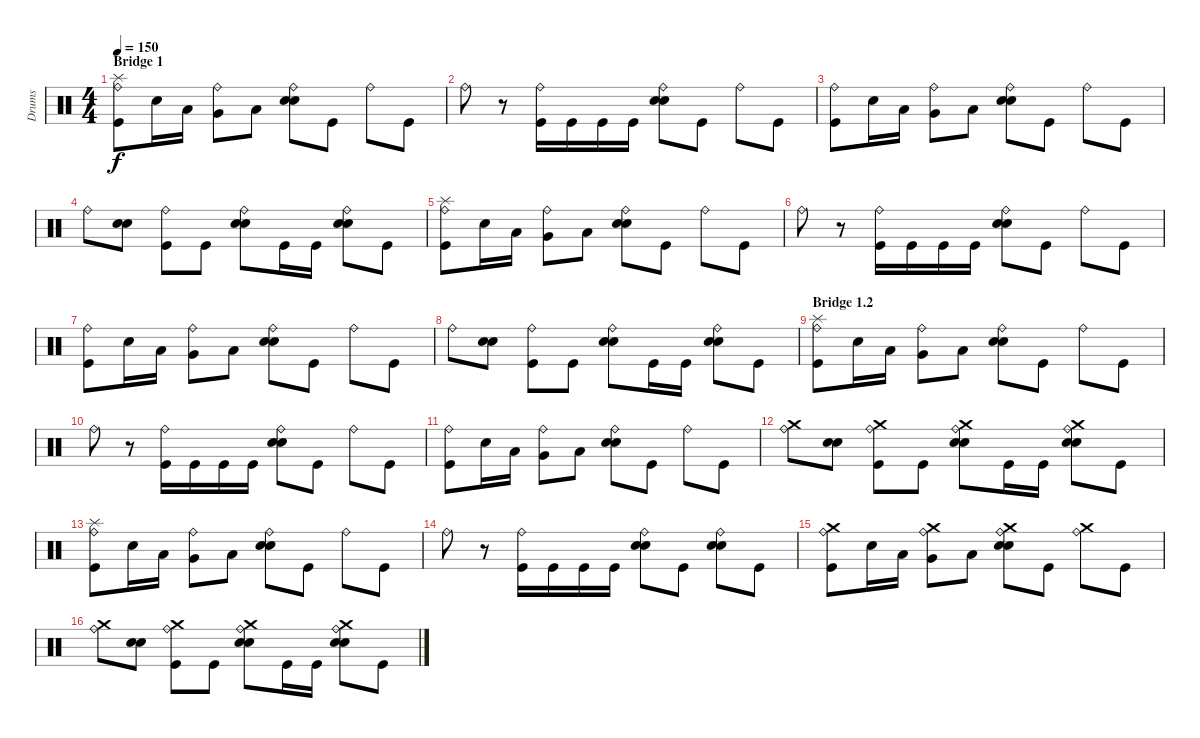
\track ("Drums" "Drums") {instrument percussion}
\staff {score}
\articulation defaults
\ts (4 4)
\section ("" "Bridge 1")
\tempo 150
\clef neutral
\ks c
("Kick (hit)" "Ride (bell)" "Splash (hit)").8{dy f} "Electric Snare (hit)".16 "Low Tom (hit)".16 ("Very Low Tom (hit)" "Ride (bell)").8 "Low Floor Tom (hit)".8 ("Electric Snare (hit)" "Electric Snare (hit)" "Ride (bell)").8 "Kick (hit)".8 "Ride (bell)".8 "Kick (hit)".8 |
"Ride (bell)".8 r.8 ("Kick (hit)" "Ride (bell)").16 "Kick (hit)".16 "Kick (hit)".16 "Kick (hit)".16 ("Electric Snare (hit)" "Electric Snare (hit)" "Ride (bell)").8 "Kick (hit)".8 "Ride (bell)".8 "Kick (hit)".8 |
("Kick (hit)" "Ride (bell)").8 "Electric Snare (hit)".16 "Low Tom (hit)".16 ("Very Low Tom (hit)" "Ride (bell)").8 "Low Floor Tom (hit)".8 ("Electric Snare (hit)" "Electric Snare (hit)" "Ride (bell)").8 "Kick (hit)".8 "Ride (bell)".8 "Kick (hit)".8 |
"Ride (bell)".8 ("Electric Snare (hit)" "Electric Snare (hit)").8 ("Kick (hit)" "Ride (bell)").8 "Kick (hit)".8 ("Electric Snare (hit)" "Electric Snare (hit)" "Ride (bell)").8 "Kick (hit)".16 "Kick (hit)".16 ("Electric Snare (hit)" "Electric Snare (hit)" "Ride (bell)").8 "Kick (hit)".8 |
("Kick (hit)" "Ride (bell)" "Splash (hit)").8 "Electric Snare (hit)".16 "Low Tom (hit)".16 ("Very Low Tom (hit)" "Ride (bell)").8 "Low Floor Tom (hit)".8 ("Electric Snare (hit)" "Electric Snare (hit)" "Ride (bell)").8 "Kick (hit)".8 "Ride (bell)".8 "Kick (hit)".8 |
"Ride (bell)".8 r.8 ("Kick (hit)" "Ride (bell)").16 "Kick (hit)".16 "Kick (hit)".16 "Kick (hit)".16 ("Electric Snare (hit)" "Electric Snare (hit)" "Ride (bell)").8 "Kick (hit)".8 "Ride (bell)".8 "Kick (hit)".8 |
("Kick (hit)" "Ride (bell)").8 "Electric Snare (hit)".16 "Low Tom (hit)".16 ("Very Low Tom (hit)" "Ride (bell)").8 "Low Floor Tom (hit)".8 ("Electric Snare (hit)" "Electric Snare (hit)" "Ride (bell)").8 "Kick (hit)".8 "Ride (bell)".8 "Kick (hit)".8 |
"Ride (bell)".8 ("Electric Snare (hit)" "Electric Snare (hit)").8 ("Kick (hit)" "Ride (bell)").8 "Kick (hit)".8 ("Electric Snare (hit)" "Electric Snare (hit)" "Ride (bell)").8 "Kick (hit)".16 "Kick (hit)".16 ("Electric Snare (hit)" "Electric Snare (hit)" "Ride (bell)").8 "Kick (hit)".8 |
\section ("" "Bridge 1.2")
("Kick (hit)" "Ride (bell)" "Splash (hit)").8 "Electric Snare (hit)".16 "Low Tom (hit)".16 ("Very Low Tom (hit)" "Ride (bell)").8 "Low Floor Tom (hit)".8 ("Electric Snare (hit)" "Electric Snare (hit)" "Ride (bell)").8 "Kick (hit)".8 "Ride (bell)".8 "Kick (hit)".8 |
"Ride (bell)".8 r.8 ("Kick (hit)" "Ride (bell)").16 "Kick (hit)".16 "Kick (hit)".16 "Kick (hit)".16 ("Electric Snare (hit)" "Electric Snare (hit)" "Ride (bell)").8 "Kick (hit)".8 "Ride (bell)".8 "Kick (hit)".8 |
("Kick (hit)" "Ride (bell)").8 "Electric Snare (hit)".16 "Low Tom (hit)".16 ("Very Low Tom (hit)" "Ride (bell)").8 "Low Floor Tom (hit)".8 ("Electric Snare (hit)" "Electric Snare (hit)" "Ride (bell)").8 "Kick (hit)".8 "Ride (bell)".8 "Kick (hit)".8 |
("Ride (bell)" "Crash medium (hit)").8 ("Electric Snare (hit)" "Electric Snare (hit)").8 ("Kick (hit)" "Ride (bell)" "Crash medium (hit)").8 "Kick (hit)".8 ("Electric Snare (hit)" "Electric Snare (hit)" "Ride (bell)" "Crash medium (hit)").8 "Kick (hit)".16 "Kick (hit)".16 ("Electric Snare (hit)" "Electric Snare (hit)" "Ride (bell)" "Crash medium (hit)").8 "Kick (hit)".8 |
("Kick (hit)" "Ride (bell)" "Splash (hit)").8 "Electric Snare (hit)".16 "Low Tom (hit)".16 ("Very Low Tom (hit)" "Ride (bell)").8 "Low Floor Tom (hit)".8 ("Electric Snare (hit)" "Electric Snare (hit)" "Ride (bell)").8 "Kick (hit)".8 "Ride (bell)".8 "Kick (hit)".8 |
"Ride (bell)".8 r.8 ("Kick (hit)" "Ride (bell)").16 "Kick (hit)".16 "Kick (hit)".16 "Kick (hit)".16 ("Electric Snare (hit)" "Electric Snare (hit)" "Ride (bell)").8 "Kick (hit)".8 ("Electric Snare (hit)" "Electric Snare (hit)" "Ride (bell)").8 "Kick (hit)".8 |
("Kick (hit)" "Ride (bell)" "Crash medium (hit)").8 "Electric Snare (hit)".16 "Low Tom (hit)".16 ("Very Low Tom (hit)" "Ride (bell)" "Crash medium (hit)").8 "Low Floor Tom (hit)".8 ("Electric Snare (hit)" "Electric Snare (hit)" "Ride (bell)" "Crash medium (hit)").8 "Kick (hit)".8 ("Ride (bell)" "Crash medium (hit)").8 "Kick (hit)".8 |
("Ride (bell)" "Crash medium (hit)").8 ("Electric Snare (hit)" "Electric Snare (hit)").8 ("Kick (hit)" "Ride (bell)" "Crash medium (hit)").8 "Kick (hit)".8 ("Electric Snare (hit)" "Electric Snare (hit)" "Ride (bell)" "Crash medium (hit)").8 "Kick (hit)".16 "Kick (hit)".16 ("Electric Snare (hit)" "Electric Snare (hit)" "Ride (bell)" "Crash medium (hit)").8 "Kick (hit)".8
